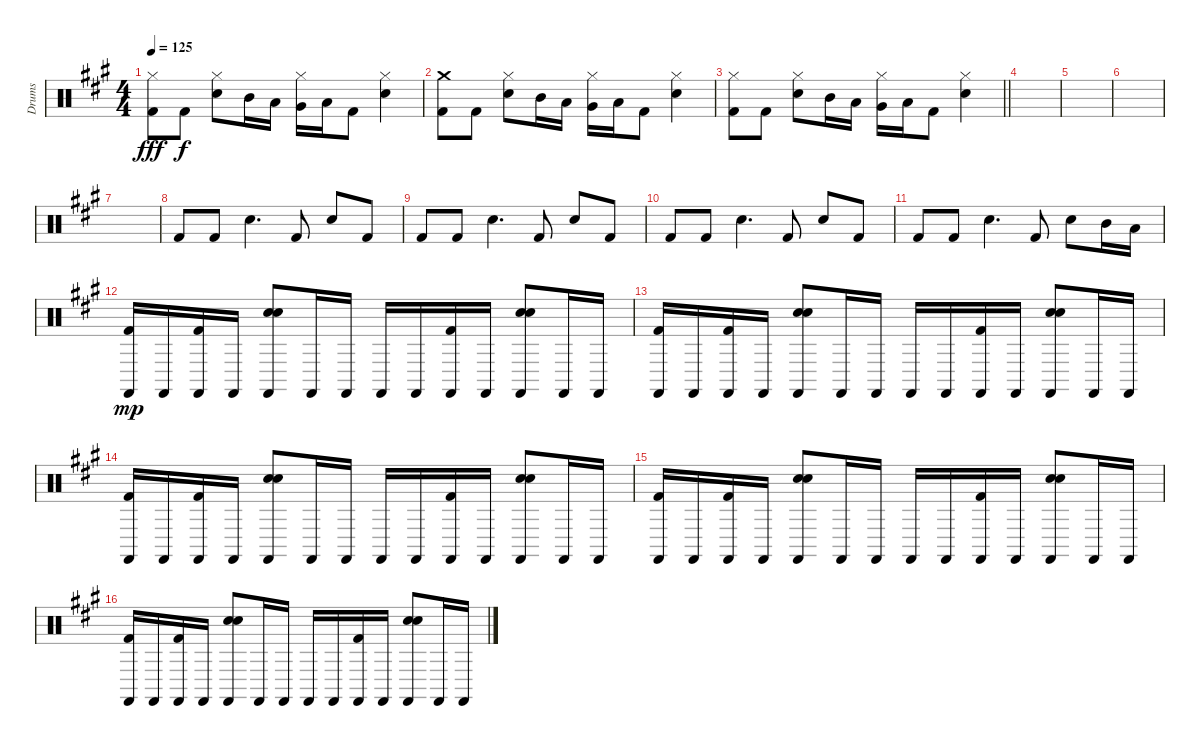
\track ("Drums" "Drums") {instrument percussion}
\staff {score}
\articulation defaults
\ts (4 4)
\tempo 125
\clef neutral
\ks a
("Hi-Hat (closed)" "Kick (hit) 2").8{dy fff} "Kick (hit) 2".8{dy f} ("Hi-Hat (closed)" "Snare (hit) 2").8 "Mid Tom (hit)".16 "Low Tom (hit)".16 ("Hi-Hat (closed)" "Very Low Tom (hit)").16 "Low Floor Tom (hit)".16 "Kick (hit) 2".8 ("Hi-Hat (closed)" "Snare (hit) 2").4 |
("Crash medium (hit)" "Kick (hit) 2").8 "Kick (hit) 2".8 ("Hi-Hat (closed)" "Snare (hit) 2").8 "Mid Tom (hit)".16 "Low Tom (hit)".16 ("Hi-Hat (closed)" "Very Low Tom (hit)").16 "Low Floor Tom (hit)".16 "Kick (hit) 2".8 ("Hi-Hat (closed)" "Snare (hit) 2").4 |
\barLineRight lightlight
("Hi-Hat (closed)" "Kick (hit) 2").8 "Kick (hit) 2".8 ("Hi-Hat (closed)" "Snare (hit) 2").8 "Mid Tom (hit)".16 "Low Tom (hit)".16 ("Hi-Hat (closed)" "Very Low Tom (hit)").16 "Low Floor Tom (hit)".16 "Kick (hit) 2".8 ("Hi-Hat (closed)" "Snare (hit) 2").4 |
|
|
|
|
"Kick (hit) 2".8 "Kick (hit) 2".8 "Snare (hit) 2".4{d} "Kick (hit) 2".8 "Snare (hit) 2".8 "Kick (hit) 2".8 |
"Kick (hit) 2".8 "Kick (hit) 2".8 "Snare (hit) 2".4{d} "Kick (hit) 2".8 "Snare (hit) 2".8 "Kick (hit) 2".8 |
"Kick (hit) 2".8 "Kick (hit) 2".8 "Snare (hit) 2".4{d} "Kick (hit) 2".8 "Snare (hit) 2".8 "Kick (hit) 2".8 |
"Kick (hit) 2".8 "Kick (hit) 2".8 "Snare (hit) 2".4{d} "Kick (hit) 2".8 "Snare (hit) 2".8 "Mid Tom (hit)".16 "Low Tom (hit)".16 |
("Castanets (hit)" "Kick (hit) 2").16{dy mp} "Castanets (hit)".16 ("Castanets (hit)" "Kick (hit) 2").16 "Castanets (hit)".16 ("Castanets (hit)" "Hand Clap (hit)" "Snare (hit) 2").8 "Castanets (hit)".16 "Castanets (hit)".16 "Castanets (hit)".16 "Castanets (hit)".16 ("Castanets (hit)" "Kick (hit) 2").16 "Castanets (hit)".16 ("Castanets (hit)" "Hand Clap (hit)" "Snare (hit) 2").8 "Castanets (hit)".16 "Castanets (hit)".16 |
("Castanets (hit)" "Kick (hit) 2").16 "Castanets (hit)".16 ("Castanets (hit)" "Kick (hit) 2").16 "Castanets (hit)".16 ("Castanets (hit)" "Hand Clap (hit)" "Snare (hit) 2").8 "Castanets (hit)".16 "Castanets (hit)".16 "Castanets (hit)".16 "Castanets (hit)".16 ("Castanets (hit)" "Kick (hit) 2").16 "Castanets (hit)".16 ("Castanets (hit)" "Hand Clap (hit)" "Snare (hit) 2").8 "Castanets (hit)".16 "Castanets (hit)".16 |
("Castanets (hit)" "Kick (hit) 2").16 "Castanets (hit)".16 ("Castanets (hit)" "Kick (hit) 2").16 "Castanets (hit)".16 ("Castanets (hit)" "Hand Clap (hit)" "Snare (hit) 2").8 "Castanets (hit)".16 "Castanets (hit)".16 "Castanets (hit)".16 "Castanets (hit)".16 ("Castanets (hit)" "Kick (hit) 2").16 "Castanets (hit)".16 ("Castanets (hit)" "Hand Clap (hit)" "Snare (hit) 2").8 "Castanets (hit)".16 "Castanets (hit)".16 |
("Castanets (hit)" "Kick (hit) 2").16 "Castanets (hit)".16 ("Castanets (hit)" "Kick (hit) 2").16 "Castanets (hit)".16 ("Castanets (hit)" "Hand Clap (hit)" "Snare (hit) 2").8 "Castanets (hit)".16 "Castanets (hit)".16 "Castanets (hit)".16 "Castanets (hit)".16 ("Castanets (hit)" "Kick (hit) 2").16 "Castanets (hit)".16 ("Castanets (hit)" "Hand Clap (hit)" "Snare (hit) 2").8 "Castanets (hit)".16 "Castanets (hit)".16 |
("Castanets (hit)" "Kick (hit) 2").16 "Castanets (hit)".16 ("Castanets (hit)" "Kick (hit) 2").16 "Castanets (hit)".16 ("Castanets (hit)" "Hand Clap (hit)" "Snare (hit) 2").8 "Castanets (hit)".16 "Castanets (hit)".16 "Castanets (hit)".16 "Castanets (hit)".16 ("Castanets (hit)" "Kick (hit) 2").16 "Castanets (hit)".16 ("Castanets (hit)" "Hand Clap (hit)" "Snare (hit) 2").8 "Castanets (hit)".16 "Castanets (hit)".16
